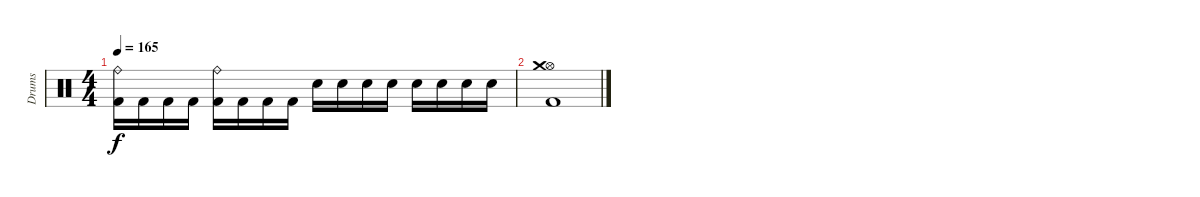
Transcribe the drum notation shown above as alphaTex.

\track ("Drums" "Drums") {instrument percussion}
\staff {score}
\articulation defaults
\ts (4 4)
\tempo 165
\clef neutral
\ks c
("Kick (hit) 2" "Ride (bell)").16{dy f} "Kick (hit) 2".16 "Kick (hit) 2".16 "Kick (hit) 2".16 ("Kick (hit) 2" "Ride (bell)").16 "Kick (hit) 2".16 "Kick (hit) 2".16 "Kick (hit) 2".16 "Snare (hit) 2".16 "Snare (hit) 2".16 "Snare (hit) 2".16 "Snare (hit) 2".16 "Snare (hit) 2".16 "Snare (hit) 2".16 "Snare (hit) 2".16 "Snare (hit) 2".16 |
("Kick (hit) 2" "Hi-Hat (open)" "Crash medium (hit)").1
